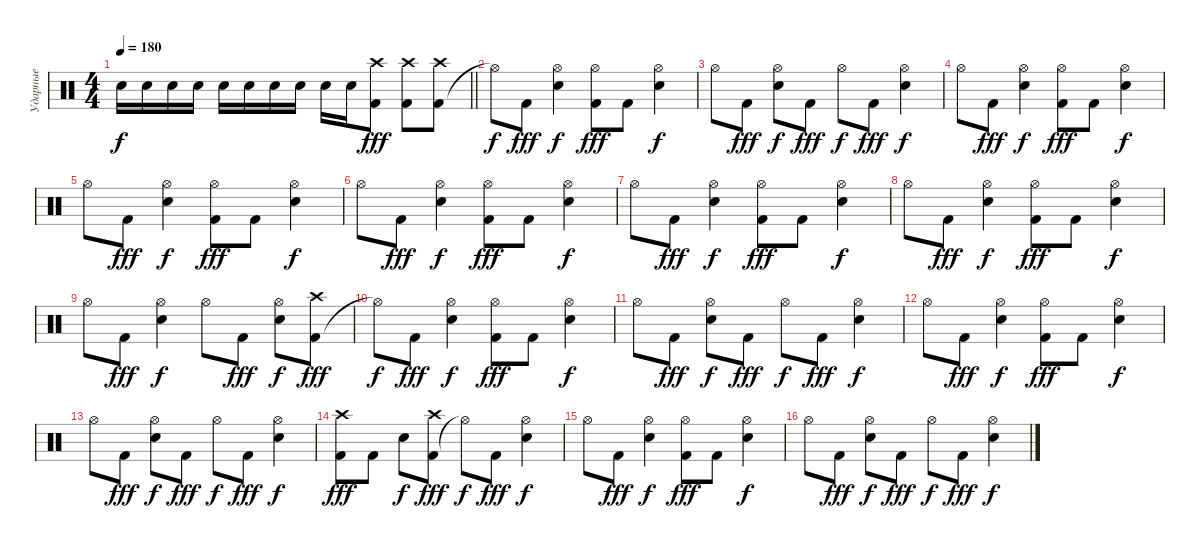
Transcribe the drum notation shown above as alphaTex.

\track ("Ударные" "Ударные") {instrument percussion}
\staff
\articulation defaults
\ts (4 4)
\tempo 180
\clef neutral
\barLineRight lightlight
\ks c "Snare (hit) 2".16{dy f} "Snare (hit) 2".16 "Snare (hit) 2".16 "Snare (hit) 2".16 "Snare (hit) 2".16 "Snare (hit) 2".16 "Snare (hit) 2".16 "Snare (hit) 2".16 "Snare (hit) 2".16 "Snare (hit) 2".16
("Kick (hit) 2" "Crash high (hit)").8{dy fff} ("Kick (hit) 2" "Crash high (hit)").8 ("Kick (hit) 2" "Crash high (hit)").8 |
"Hi-Hat (open)"{t}.8{dy f} "Kick (hit) 2".8{dy fff} ("Snare (hit) 2" "Hi-Hat (open)").4{dy f} ("Kick (hit) 2" "Hi-Hat (open)").8{dy fff} "Kick (hit) 2".8 ("Snare (hit) 2" "Hi-Hat (open)").4{dy f} |
"Hi-Hat (open)".8 "Kick (hit) 2".8{dy fff} ("Snare (hit) 2" "Hi-Hat (open)").8{dy f} "Kick (hit) 2".8{dy fff} "Hi-Hat (open)".8{dy f} "Kick (hit) 2".8{dy fff} ("Snare (hit) 2" "Hi-Hat (open)").4{dy f} |
"Hi-Hat (open)".8 "Kick (hit) 2".8{dy fff} ("Snare (hit) 2" "Hi-Hat (open)").4{dy f} ("Kick (hit) 2" "Hi-Hat (open)").8{dy fff} "Kick (hit) 2".8 ("Snare (hit) 2" "Hi-Hat (open)").4{dy f} |
"Hi-Hat (open)".8 "Kick (hit) 2".8{dy fff} ("Snare (hit) 2" "Hi-Hat (open)").4{dy f} ("Kick (hit) 2" "Hi-Hat (open)").8{dy fff} "Kick (hit) 2".8 ("Snare (hit) 2" "Hi-Hat (open)").4{dy f} |
"Hi-Hat (open)".8 "Kick (hit) 2".8{dy fff} ("Snare (hit) 2" "Hi-Hat (open)").4{dy f} ("Kick (hit) 2" "Hi-Hat (open)").8{dy fff} "Kick (hit) 2".8 ("Snare (hit) 2" "Hi-Hat (open)").4{dy f} |
"Hi-Hat (open)".8 "Kick (hit) 2".8{dy fff} ("Snare (hit) 2" "Hi-Hat (open)").4{dy f} ("Kick (hit) 2" "Hi-Hat (open)").8{dy fff} "Kick (hit) 2".8 ("Snare (hit) 2" "Hi-Hat (open)").4{dy f} |
"Hi-Hat (open)".8 "Kick (hit) 2".8{dy fff} ("Snare (hit) 2" "Hi-Hat (open)").4{dy f} ("Kick (hit) 2" "Hi-Hat (open)").8{dy fff} "Kick (hit) 2".8 ("Snare (hit) 2" "Hi-Hat (open)").4{dy f} |
"Hi-Hat (open)".8 "Kick (hit) 2".8{dy fff} ("Snare (hit) 2" "Hi-Hat (open)").4{dy f} "Hi-Hat (open)".8 "Kick (hit) 2".8{dy fff} ("Snare (hit) 2" "Hi-Hat (open)").8{dy f} ("Kick (hit) 2" "Crash high (hit)").8{dy fff} |
"Hi-Hat (open)"{t}.8{dy f} "Kick (hit) 2".8{dy fff} ("Snare (hit) 2" "Hi-Hat (open)").4{dy f} ("Kick (hit) 2" "Hi-Hat (open)").8{dy fff} "Kick (hit) 2".8 ("Snare (hit) 2" "Hi-Hat (open)").4{dy f} |
"Hi-Hat (open)".8 "Kick (hit) 2".8{dy fff} ("Snare (hit) 2" "Hi-Hat (open)").8{dy f} "Kick (hit) 2".8{dy fff} "Hi-Hat (open)".8{dy f} "Kick (hit) 2".8{dy fff} ("Snare (hit) 2" "Hi-Hat (open)").4{dy f} |
"Hi-Hat (open)".8 "Kick (hit) 2".8{dy fff} ("Snare (hit) 2" "Hi-Hat (open)").4{dy f} ("Kick (hit) 2" "Hi-Hat (open)").8{dy fff} "Kick (hit) 2".8 ("Snare (hit) 2" "Hi-Hat (open)").4{dy f} |
"Hi-Hat (open)".8 "Kick (hit) 2".8{dy fff} ("Snare (hit) 2" "Hi-Hat (open)").8{dy f} "Kick (hit) 2".8{dy fff} "Hi-Hat (open)".8{dy f} "Kick (hit) 2".8{dy fff} ("Snare (hit) 2" "Hi-Hat (open)").4{dy f} |
("Kick (hit) 2" "Crash high (hit)").8{dy fff} "Kick (hit) 2".8 "Snare (hit) 2".8{dy f} ("Kick (hit) 2" "Crash high (hit)").8{dy fff} "Hi-Hat (open)"{t}.8{dy f} "Kick (hit) 2".8{dy fff} ("Snare (hit) 2" "Hi-Hat (open)").4{dy f} |
"Hi-Hat (open)".8 "Kick (hit) 2".8{dy fff} ("Snare (hit) 2" "Hi-Hat (open)").4{dy f} ("Kick (hit) 2" "Hi-Hat (open)").8{dy fff} "Kick (hit) 2".8 ("Snare (hit) 2" "Hi-Hat (open)").4{dy f} |
"Hi-Hat (open)".8 "Kick (hit) 2".8{dy fff} ("Snare (hit) 2" "Hi-Hat (open)").8{dy f} "Kick (hit) 2".8{dy fff} "Hi-Hat (open)".8{dy f} "Kick (hit) 2".8{dy fff} ("Snare (hit) 2" "Hi-Hat (open)").4{dy f}
